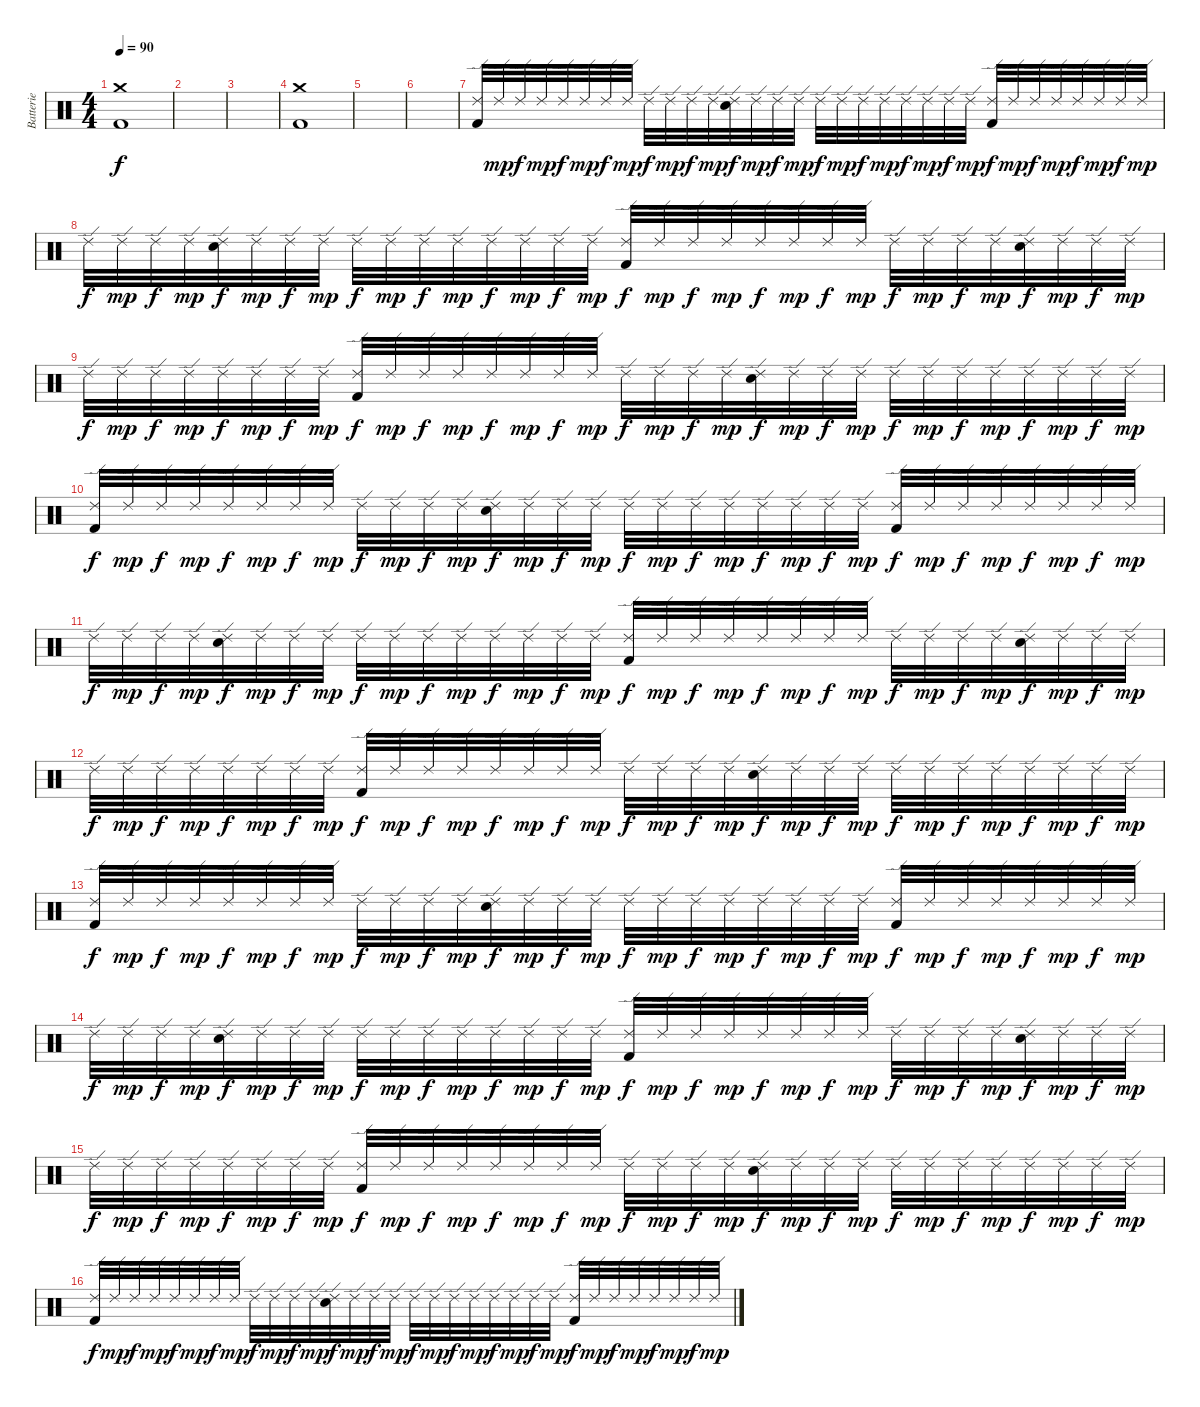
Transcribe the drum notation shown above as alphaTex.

\track ("Batterie" "Batterie") {instrument percussion}
\staff {score}
\articulation defaults
\ts (4 4)
\tempo 90
\clef neutral
\ks c
("Crash medium (hit)" "Kick (hit) 2").1{dy f} |
|
|
("Crash medium (hit)" "Kick (hit) 2").1 |
|
|
("Ride (edge) 2" "Kick (hit) 2").32 "Ride (edge) 2".32{dy mp} "Ride (edge) 2".32{dy f} "Ride (edge) 2".32{dy mp} "Ride (edge) 2".32{dy f} "Ride (edge) 2".32{dy mp} "Ride (edge) 2".32{dy f} "Ride (edge) 2".32{dy mp} "Ride (edge) 2".32{dy f} "Ride (edge) 2".32{dy mp} "Ride (edge) 2".32{dy f} "Ride (edge) 2".32{dy mp} ("Ride (edge) 2" "Electric Snare (hit)").32{dy f} "Ride (edge) 2".32{dy mp} "Ride (edge) 2".32{dy f} "Ride (edge) 2".32{dy mp} "Ride (edge) 2".32{dy f} "Ride (edge) 2".32{dy mp} "Ride (edge) 2".32{dy f} "Ride (edge) 2".32{dy mp} "Ride (edge) 2".32{dy f} "Ride (edge) 2".32{dy mp} "Ride (edge) 2".32{dy f} "Ride (edge) 2".32{dy mp} ("Ride (edge) 2" "Kick (hit) 2").32{dy f} "Ride (edge) 2".32{dy mp} "Ride (edge) 2".32{dy f} "Ride (edge) 2".32{dy mp} "Ride (edge) 2".32{dy f} "Ride (edge) 2".32{dy mp} "Ride (edge) 2".32{dy f} "Ride (edge) 2".32{dy mp} |
"Ride (edge) 2".32{dy f} "Ride (edge) 2".32{dy mp} "Ride (edge) 2".32{dy f} "Ride (edge) 2".32{dy mp} ("Ride (edge) 2" "Electric Snare (hit)").32{dy f} "Ride (edge) 2".32{dy mp} "Ride (edge) 2".32{dy f} "Ride (edge) 2".32{dy mp} "Ride (edge) 2".32{dy f} "Ride (edge) 2".32{dy mp} "Ride (edge) 2".32{dy f} "Ride (edge) 2".32{dy mp} "Ride (edge) 2".32{dy f} "Ride (edge) 2".32{dy mp} "Ride (edge) 2".32{dy f} "Ride (edge) 2".32{dy mp} ("Ride (edge) 2" "Kick (hit) 2").32{dy f} "Ride (edge) 2".32{dy mp} "Ride (edge) 2".32{dy f} "Ride (edge) 2".32{dy mp} "Ride (edge) 2".32{dy f} "Ride (edge) 2".32{dy mp} "Ride (edge) 2".32{dy f} "Ride (edge) 2".32{dy mp} "Ride (edge) 2".32{dy f} "Ride (edge) 2".32{dy mp} "Ride (edge) 2".32{dy f} "Ride (edge) 2".32{dy mp} ("Ride (edge) 2" "Electric Snare (hit)").32{dy f} "Ride (edge) 2".32{dy mp} "Ride (edge) 2".32{dy f} "Ride (edge) 2".32{dy mp} |
"Ride (edge) 2".32{dy f} "Ride (edge) 2".32{dy mp} "Ride (edge) 2".32{dy f} "Ride (edge) 2".32{dy mp} "Ride (edge) 2".32{dy f} "Ride (edge) 2".32{dy mp} "Ride (edge) 2".32{dy f} "Ride (edge) 2".32{dy mp} ("Ride (edge) 2" "Kick (hit) 2").32{dy f} "Ride (edge) 2".32{dy mp} "Ride (edge) 2".32{dy f} "Ride (edge) 2".32{dy mp} "Ride (edge) 2".32{dy f} "Ride (edge) 2".32{dy mp} "Ride (edge) 2".32{dy f} "Ride (edge) 2".32{dy mp} "Ride (edge) 2".32{dy f} "Ride (edge) 2".32{dy mp} "Ride (edge) 2".32{dy f} "Ride (edge) 2".32{dy mp} ("Ride (edge) 2" "Electric Snare (hit)").32{dy f} "Ride (edge) 2".32{dy mp} "Ride (edge) 2".32{dy f} "Ride (edge) 2".32{dy mp} "Ride (edge) 2".32{dy f} "Ride (edge) 2".32{dy mp} "Ride (edge) 2".32{dy f} "Ride (edge) 2".32{dy mp} "Ride (edge) 2".32{dy f} "Ride (edge) 2".32{dy mp} "Ride (edge) 2".32{dy f} "Ride (edge) 2".32{dy mp} |
("Ride (edge) 2" "Kick (hit) 2").32{dy f} "Ride (edge) 2".32{dy mp} "Ride (edge) 2".32{dy f} "Ride (edge) 2".32{dy mp} "Ride (edge) 2".32{dy f} "Ride (edge) 2".32{dy mp} "Ride (edge) 2".32{dy f} "Ride (edge) 2".32{dy mp} "Ride (edge) 2".32{dy f} "Ride (edge) 2".32{dy mp} "Ride (edge) 2".32{dy f} "Ride (edge) 2".32{dy mp} ("Ride (edge) 2" "Electric Snare (hit)").32{dy f} "Ride (edge) 2".32{dy mp} "Ride (edge) 2".32{dy f} "Ride (edge) 2".32{dy mp} "Ride (edge) 2".32{dy f} "Ride (edge) 2".32{dy mp} "Ride (edge) 2".32{dy f} "Ride (edge) 2".32{dy mp} "Ride (edge) 2".32{dy f} "Ride (edge) 2".32{dy mp} "Ride (edge) 2".32{dy f} "Ride (edge) 2".32{dy mp} ("Ride (edge) 2" "Kick (hit) 2").32{dy f} "Ride (edge) 2".32{dy mp} "Ride (edge) 2".32{dy f} "Ride (edge) 2".32{dy mp} "Ride (edge) 2".32{dy f} "Ride (edge) 2".32{dy mp} "Ride (edge) 2".32{dy f} "Ride (edge) 2".32{dy mp} |
"Ride (edge) 2".32{dy f} "Ride (edge) 2".32{dy mp} "Ride (edge) 2".32{dy f} "Ride (edge) 2".32{dy mp} ("Ride (edge) 2" "Electric Snare (hit)").32{dy f} "Ride (edge) 2".32{dy mp} "Ride (edge) 2".32{dy f} "Ride (edge) 2".32{dy mp} "Ride (edge) 2".32{dy f} "Ride (edge) 2".32{dy mp} "Ride (edge) 2".32{dy f} "Ride (edge) 2".32{dy mp} "Ride (edge) 2".32{dy f} "Ride (edge) 2".32{dy mp} "Ride (edge) 2".32{dy f} "Ride (edge) 2".32{dy mp} ("Ride (edge) 2" "Kick (hit) 2").32{dy f} "Ride (edge) 2".32{dy mp} "Ride (edge) 2".32{dy f} "Ride (edge) 2".32{dy mp} "Ride (edge) 2".32{dy f} "Ride (edge) 2".32{dy mp} "Ride (edge) 2".32{dy f} "Ride (edge) 2".32{dy mp} "Ride (edge) 2".32{dy f} "Ride (edge) 2".32{dy mp} "Ride (edge) 2".32{dy f} "Ride (edge) 2".32{dy mp} ("Ride (edge) 2" "Electric Snare (hit)").32{dy f} "Ride (edge) 2".32{dy mp} "Ride (edge) 2".32{dy f} "Ride (edge) 2".32{dy mp} |
"Ride (edge) 2".32{dy f} "Ride (edge) 2".32{dy mp} "Ride (edge) 2".32{dy f} "Ride (edge) 2".32{dy mp} "Ride (edge) 2".32{dy f} "Ride (edge) 2".32{dy mp} "Ride (edge) 2".32{dy f} "Ride (edge) 2".32{dy mp} ("Ride (edge) 2" "Kick (hit) 2").32{dy f} "Ride (edge) 2".32{dy mp} "Ride (edge) 2".32{dy f} "Ride (edge) 2".32{dy mp} "Ride (edge) 2".32{dy f} "Ride (edge) 2".32{dy mp} "Ride (edge) 2".32{dy f} "Ride (edge) 2".32{dy mp} "Ride (edge) 2".32{dy f} "Ride (edge) 2".32{dy mp} "Ride (edge) 2".32{dy f} "Ride (edge) 2".32{dy mp} ("Ride (edge) 2" "Electric Snare (hit)").32{dy f} "Ride (edge) 2".32{dy mp} "Ride (edge) 2".32{dy f} "Ride (edge) 2".32{dy mp} "Ride (edge) 2".32{dy f} "Ride (edge) 2".32{dy mp} "Ride (edge) 2".32{dy f} "Ride (edge) 2".32{dy mp} "Ride (edge) 2".32{dy f} "Ride (edge) 2".32{dy mp} "Ride (edge) 2".32{dy f} "Ride (edge) 2".32{dy mp} |
("Ride (edge) 2" "Kick (hit) 2").32{dy f} "Ride (edge) 2".32{dy mp} "Ride (edge) 2".32{dy f} "Ride (edge) 2".32{dy mp} "Ride (edge) 2".32{dy f} "Ride (edge) 2".32{dy mp} "Ride (edge) 2".32{dy f} "Ride (edge) 2".32{dy mp} "Ride (edge) 2".32{dy f} "Ride (edge) 2".32{dy mp} "Ride (edge) 2".32{dy f} "Ride (edge) 2".32{dy mp} ("Ride (edge) 2" "Electric Snare (hit)").32{dy f} "Ride (edge) 2".32{dy mp} "Ride (edge) 2".32{dy f} "Ride (edge) 2".32{dy mp} "Ride (edge) 2".32{dy f} "Ride (edge) 2".32{dy mp} "Ride (edge) 2".32{dy f} "Ride (edge) 2".32{dy mp} "Ride (edge) 2".32{dy f} "Ride (edge) 2".32{dy mp} "Ride (edge) 2".32{dy f} "Ride (edge) 2".32{dy mp} ("Ride (edge) 2" "Kick (hit) 2").32{dy f} "Ride (edge) 2".32{dy mp} "Ride (edge) 2".32{dy f} "Ride (edge) 2".32{dy mp} "Ride (edge) 2".32{dy f} "Ride (edge) 2".32{dy mp} "Ride (edge) 2".32{dy f} "Ride (edge) 2".32{dy mp} |
"Ride (edge) 2".32{dy f} "Ride (edge) 2".32{dy mp} "Ride (edge) 2".32{dy f} "Ride (edge) 2".32{dy mp} ("Ride (edge) 2" "Electric Snare (hit)").32{dy f} "Ride (edge) 2".32{dy mp} "Ride (edge) 2".32{dy f} "Ride (edge) 2".32{dy mp} "Ride (edge) 2".32{dy f} "Ride (edge) 2".32{dy mp} "Ride (edge) 2".32{dy f} "Ride (edge) 2".32{dy mp} "Ride (edge) 2".32{dy f} "Ride (edge) 2".32{dy mp} "Ride (edge) 2".32{dy f} "Ride (edge) 2".32{dy mp} ("Ride (edge) 2" "Kick (hit) 2").32{dy f} "Ride (edge) 2".32{dy mp} "Ride (edge) 2".32{dy f} "Ride (edge) 2".32{dy mp} "Ride (edge) 2".32{dy f} "Ride (edge) 2".32{dy mp} "Ride (edge) 2".32{dy f} "Ride (edge) 2".32{dy mp} "Ride (edge) 2".32{dy f} "Ride (edge) 2".32{dy mp} "Ride (edge) 2".32{dy f} "Ride (edge) 2".32{dy mp} ("Ride (edge) 2" "Electric Snare (hit)").32{dy f} "Ride (edge) 2".32{dy mp} "Ride (edge) 2".32{dy f} "Ride (edge) 2".32{dy mp} |
"Ride (edge) 2".32{dy f} "Ride (edge) 2".32{dy mp} "Ride (edge) 2".32{dy f} "Ride (edge) 2".32{dy mp} "Ride (edge) 2".32{dy f} "Ride (edge) 2".32{dy mp} "Ride (edge) 2".32{dy f} "Ride (edge) 2".32{dy mp} ("Ride (edge) 2" "Kick (hit) 2").32{dy f} "Ride (edge) 2".32{dy mp} "Ride (edge) 2".32{dy f} "Ride (edge) 2".32{dy mp} "Ride (edge) 2".32{dy f} "Ride (edge) 2".32{dy mp} "Ride (edge) 2".32{dy f} "Ride (edge) 2".32{dy mp} "Ride (edge) 2".32{dy f} "Ride (edge) 2".32{dy mp} "Ride (edge) 2".32{dy f} "Ride (edge) 2".32{dy mp} ("Ride (edge) 2" "Electric Snare (hit)").32{dy f} "Ride (edge) 2".32{dy mp} "Ride (edge) 2".32{dy f} "Ride (edge) 2".32{dy mp} "Ride (edge) 2".32{dy f} "Ride (edge) 2".32{dy mp} "Ride (edge) 2".32{dy f} "Ride (edge) 2".32{dy mp} "Ride (edge) 2".32{dy f} "Ride (edge) 2".32{dy mp} "Ride (edge) 2".32{dy f} "Ride (edge) 2".32{dy mp} |
("Ride (edge) 2" "Kick (hit) 2").32{dy f} "Ride (edge) 2".32{dy mp} "Ride (edge) 2".32{dy f} "Ride (edge) 2".32{dy mp} "Ride (edge) 2".32{dy f} "Ride (edge) 2".32{dy mp} "Ride (edge) 2".32{dy f} "Ride (edge) 2".32{dy mp} "Ride (edge) 2".32{dy f} "Ride (edge) 2".32{dy mp} "Ride (edge) 2".32{dy f} "Ride (edge) 2".32{dy mp} ("Ride (edge) 2" "Electric Snare (hit)").32{dy f} "Ride (edge) 2".32{dy mp} "Ride (edge) 2".32{dy f} "Ride (edge) 2".32{dy mp} "Ride (edge) 2".32{dy f} "Ride (edge) 2".32{dy mp} "Ride (edge) 2".32{dy f} "Ride (edge) 2".32{dy mp} "Ride (edge) 2".32{dy f} "Ride (edge) 2".32{dy mp} "Ride (edge) 2".32{dy f} "Ride (edge) 2".32{dy mp} ("Ride (edge) 2" "Kick (hit) 2").32{dy f} "Ride (edge) 2".32{dy mp} "Ride (edge) 2".32{dy f} "Ride (edge) 2".32{dy mp} "Ride (edge) 2".32{dy f} "Ride (edge) 2".32{dy mp} "Ride (edge) 2".32{dy f} "Ride (edge) 2".32{dy mp}
